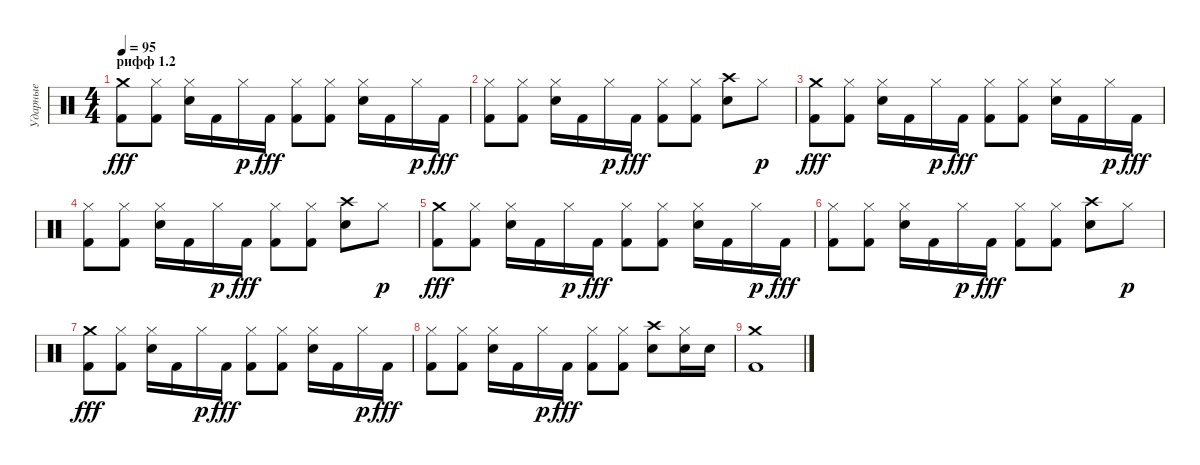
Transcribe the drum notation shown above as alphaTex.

\track ("Ударные" "Ударные") {instrument percussion}
\staff {score}
\articulation defaults
\ts (4 4)
\section ("" "рифф 1.2")
\tempo 95
\clef neutral
\ks c
("Crash medium (hit)" "Kick (hit) 2").8{dy fff} ("Hi-Hat (closed)" "Kick (hit) 2").8 ("Hi-Hat (closed)" "Snare (hit) 2").16 "Kick (hit) 2".16 "Hi-Hat (closed)".16{dy p} "Kick (hit) 2".16{dy fff} ("Hi-Hat (closed)" "Kick (hit) 2").8 ("Hi-Hat (closed)" "Kick (hit) 2").8 ("Hi-Hat (closed)" "Snare (hit) 2").16 "Kick (hit) 2".16 "Hi-Hat (closed)".16{dy p} "Kick (hit) 2".16{dy fff} |
("Hi-Hat (closed)" "Kick (hit) 2").8 ("Hi-Hat (closed)" "Kick (hit) 2").8 ("Hi-Hat (closed)" "Snare (hit) 2").16 "Kick (hit) 2".16 "Hi-Hat (closed)".16{dy p} "Kick (hit) 2".16{dy fff} ("Hi-Hat (closed)" "Kick (hit) 2").8 ("Hi-Hat (closed)" "Kick (hit) 2").8 ("Crash high (hit)" "Snare (hit) 2").8 "Hi-Hat (closed)".8{dy p} |
("Crash medium (hit)" "Kick (hit) 2").8{dy fff} ("Hi-Hat (closed)" "Kick (hit) 2").8 ("Hi-Hat (closed)" "Snare (hit) 2").16 "Kick (hit) 2".16 "Hi-Hat (closed)".16{dy p} "Kick (hit) 2".16{dy fff} ("Hi-Hat (closed)" "Kick (hit) 2").8 ("Hi-Hat (closed)" "Kick (hit) 2").8 ("Hi-Hat (closed)" "Snare (hit) 2").16 "Kick (hit) 2".16 "Hi-Hat (closed)".16{dy p} "Kick (hit) 2".16{dy fff} |
("Hi-Hat (closed)" "Kick (hit) 2").8 ("Hi-Hat (closed)" "Kick (hit) 2").8 ("Hi-Hat (closed)" "Snare (hit) 2").16 "Kick (hit) 2".16 "Hi-Hat (closed)".16{dy p} "Kick (hit) 2".16{dy fff} ("Hi-Hat (closed)" "Kick (hit) 2").8 ("Hi-Hat (closed)" "Kick (hit) 2").8 ("Crash high (hit)" "Snare (hit) 2").8 "Hi-Hat (closed)".8{dy p} |
("Crash medium (hit)" "Kick (hit) 2").8{dy fff} ("Hi-Hat (closed)" "Kick (hit) 2").8 ("Hi-Hat (closed)" "Snare (hit) 2").16 "Kick (hit) 2".16 "Hi-Hat (closed)".16{dy p} "Kick (hit) 2".16{dy fff} ("Hi-Hat (closed)" "Kick (hit) 2").8 ("Hi-Hat (closed)" "Kick (hit) 2").8 ("Hi-Hat (closed)" "Snare (hit) 2").16 "Kick (hit) 2".16 "Hi-Hat (closed)".16{dy p} "Kick (hit) 2".16{dy fff} |
("Hi-Hat (closed)" "Kick (hit) 2").8 ("Hi-Hat (closed)" "Kick (hit) 2").8 ("Hi-Hat (closed)" "Snare (hit) 2").16 "Kick (hit) 2".16 "Hi-Hat (closed)".16{dy p} "Kick (hit) 2".16{dy fff} ("Hi-Hat (closed)" "Kick (hit) 2").8 ("Hi-Hat (closed)" "Kick (hit) 2").8 ("Crash high (hit)" "Snare (hit) 2").8 "Hi-Hat (closed)".8{dy p} |
("Crash medium (hit)" "Kick (hit) 2").8{dy fff} ("Hi-Hat (closed)" "Kick (hit) 2").8 ("Hi-Hat (closed)" "Snare (hit) 2").16 "Kick (hit) 2".16 "Hi-Hat (closed)".16{dy p} "Kick (hit) 2".16{dy fff} ("Hi-Hat (closed)" "Kick (hit) 2").8 ("Hi-Hat (closed)" "Kick (hit) 2").8 ("Hi-Hat (closed)" "Snare (hit) 2").16 "Kick (hit) 2".16 "Hi-Hat (closed)".16{dy p} "Kick (hit) 2".16{dy fff} |
("Hi-Hat (closed)" "Kick (hit) 2").8 ("Hi-Hat (closed)" "Kick (hit) 2").8 ("Hi-Hat (closed)" "Snare (hit) 2").16 "Kick (hit) 2".16 "Hi-Hat (closed)".16{dy p} "Kick (hit) 2".16{dy fff} ("Hi-Hat (closed)" "Kick (hit) 2").8 ("Hi-Hat (closed)" "Kick (hit) 2").8 ("Crash high (hit)" "Snare (hit) 2").8 ("Hi-Hat (closed)" "Snare (hit) 2").16 "Snare (hit) 2".16 |
("Crash medium (hit)" "Kick (hit) 2").1
